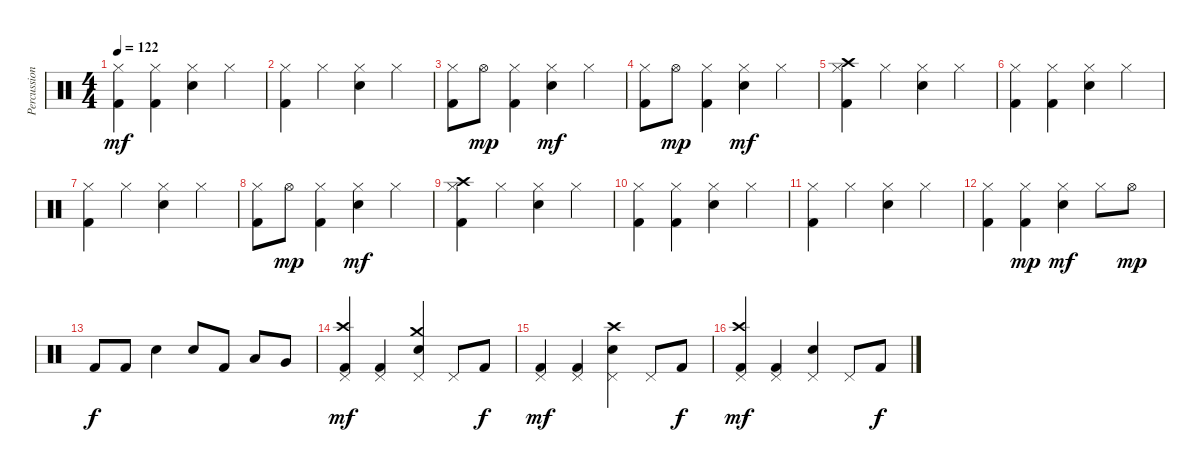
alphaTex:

\track ("Percussion" "Percussion") {instrument percussion}
\staff {score}
\articulation defaults
\ts (4 4)
\tempo 122
\clef neutral
\ks c
("Hi-Hat (closed)" "Kick (hit) 2").4{dy mf} ("Hi-Hat (closed)" "Kick (hit) 2").4 ("Hi-Hat (closed)" "Snare (hit) 2").4 "Hi-Hat (closed)".4 |
("Hi-Hat (closed)" "Kick (hit) 2").4 "Hi-Hat (closed)".4 ("Hi-Hat (closed)" "Snare (hit) 2").4 "Hi-Hat (closed)".4 |
("Hi-Hat (closed)" "Kick (hit) 2").8 "Hi-Hat (open)".8{dy mp} ("Hi-Hat (closed)" "Kick (hit) 2").4 ("Hi-Hat (closed)" "Snare (hit) 2").4{dy mf} "Hi-Hat (closed)".4 |
("Hi-Hat (closed)" "Kick (hit) 2").8 "Hi-Hat (open)".8{dy mp} ("Hi-Hat (closed)" "Kick (hit) 2").4 ("Hi-Hat (closed)" "Snare (hit) 2").4{dy mf} "Hi-Hat (closed)".4 |
("Hi-Hat (closed)" "Crash high (hit)" "Kick (hit) 2").4 "Hi-Hat (closed)".4 ("Hi-Hat (closed)" "Snare (hit) 2").4 "Hi-Hat (closed)".4 |
("Hi-Hat (closed)" "Kick (hit) 2").4 ("Hi-Hat (closed)" "Kick (hit) 2").4 ("Hi-Hat (closed)" "Snare (hit) 2").4 "Hi-Hat (closed)".4 |
("Hi-Hat (closed)" "Kick (hit) 2").4 "Hi-Hat (closed)".4 ("Hi-Hat (closed)" "Snare (hit) 2").4 "Hi-Hat (closed)".4 |
("Hi-Hat (closed)" "Kick (hit) 2").8 "Hi-Hat (open)".8{dy mp} ("Hi-Hat (closed)" "Kick (hit) 2").4 ("Hi-Hat (closed)" "Snare (hit) 2").4{dy mf} "Hi-Hat (closed)".4 |
("Hi-Hat (closed)" "Crash high (hit)" "Kick (hit) 2").4 "Hi-Hat (closed)".4 ("Hi-Hat (closed)" "Snare (hit) 2").4 "Hi-Hat (closed)".4 |
("Hi-Hat (closed)" "Kick (hit) 2").4 ("Hi-Hat (closed)" "Kick (hit) 2").4 ("Hi-Hat (closed)" "Snare (hit) 2").4 "Hi-Hat (closed)".4 |
("Hi-Hat (closed)" "Kick (hit) 2").4 "Hi-Hat (closed)".4 ("Hi-Hat (closed)" "Snare (hit) 2").4 "Hi-Hat (closed)".4 |
("Hi-Hat (closed)" "Kick (hit) 2").4 ("Hi-Hat (closed)" "Kick (hit) 2").4{dy mp} ("Hi-Hat (closed)" "Snare (hit) 2").4{dy mf} "Hi-Hat (closed)".8 "Hi-Hat (open)".8{dy mp} |
"Kick (hit) 2".8{dy f} "Kick (hit) 2".8 "Snare (hit) 2".4 "Snare (hit) 2".8 "Kick (hit) 2".8 "Low Tom (hit)".8 "Very Low Tom (hit)".8 |
("Pedal Hi-Hat (hit)" "Crash high (hit)" "Kick (hit) 2").4{dy mf} ("Pedal Hi-Hat (hit)" "Kick (hit) 2").4 ("Pedal Hi-Hat (hit)" "Crash medium (hit)" "Electric Snare (hit)").4 "Pedal Hi-Hat (hit)".8 "Kick (hit) 2".8{dy f} |
("Pedal Hi-Hat (hit)" "Kick (hit) 2").4{dy mf} ("Pedal Hi-Hat (hit)" "Kick (hit) 2").4 ("Pedal Hi-Hat (hit)" "Crash high (hit)" "Electric Snare (hit)").4 "Pedal Hi-Hat (hit)".8 "Kick (hit) 2".8{dy f} |
("Pedal Hi-Hat (hit)" "Crash high (hit)" "Kick (hit) 2").4{dy mf} ("Pedal Hi-Hat (hit)" "Kick (hit) 2").4 ("Pedal Hi-Hat (hit)" "Electric Snare (hit)").4 "Pedal Hi-Hat (hit)".8 "Kick (hit) 2".8{dy f}
